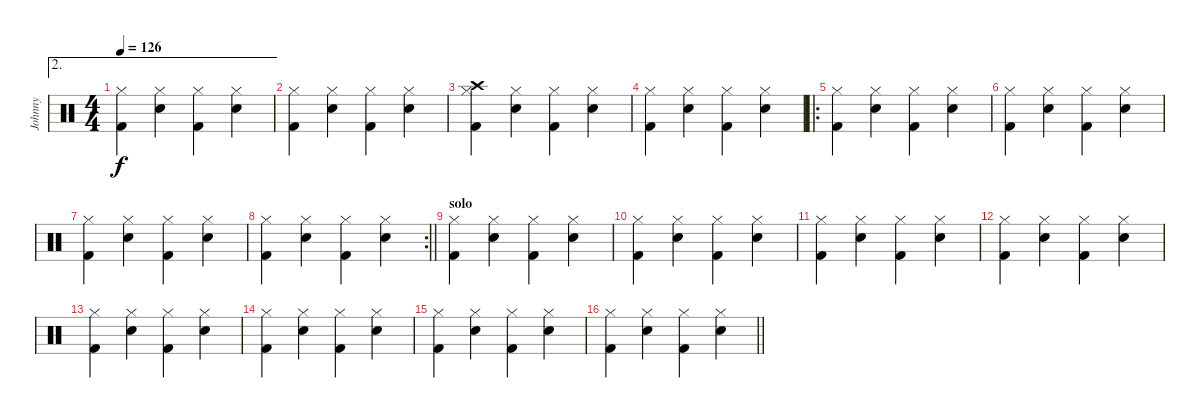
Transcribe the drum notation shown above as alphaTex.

\track ("Johnny" "Johnny") {instrument percussion}
\staff {score}
\articulation defaults
\ae 2
\ts (4 4)
\tempo 126
\clef neutral
\ks c
("Kick (hit) 2" "Hi-Hat (closed)").4{dy f} ("Electric Snare (hit)" "Hi-Hat (closed)").4 ("Kick (hit) 2" "Hi-Hat (closed)").4 ("Electric Snare (hit)" "Hi-Hat (closed)").4 |
("Kick (hit) 2" "Hi-Hat (closed)").4 ("Electric Snare (hit)" "Hi-Hat (closed)").4 ("Kick (hit) 2" "Hi-Hat (closed)").4 ("Electric Snare (hit)" "Hi-Hat (closed)").4 |
("Kick (hit) 2" "Hi-Hat (closed)" "Crash high (hit)").4 ("Electric Snare (hit)" "Hi-Hat (closed)").4 ("Kick (hit) 2" "Hi-Hat (closed)").4 ("Electric Snare (hit)" "Hi-Hat (closed)").4 |
("Kick (hit) 2" "Hi-Hat (closed)").4 ("Electric Snare (hit)" "Hi-Hat (closed)").4 ("Kick (hit) 2" "Hi-Hat (closed)").4 ("Electric Snare (hit)" "Hi-Hat (closed)").4 |
\ro
("Kick (hit) 2" "Hi-Hat (closed)").4 ("Electric Snare (hit)" "Hi-Hat (closed)").4 ("Kick (hit) 2" "Hi-Hat (closed)").4 ("Electric Snare (hit)" "Hi-Hat (closed)").4 |
("Kick (hit) 2" "Hi-Hat (closed)").4 ("Electric Snare (hit)" "Hi-Hat (closed)").4 ("Kick (hit) 2" "Hi-Hat (closed)").4 ("Electric Snare (hit)" "Hi-Hat (closed)").4 |
("Kick (hit) 2" "Hi-Hat (closed)").4 ("Electric Snare (hit)" "Hi-Hat (closed)").4 ("Kick (hit) 2" "Hi-Hat (closed)").4 ("Electric Snare (hit)" "Hi-Hat (closed)").4 |
\rc 2
\barLineRight lightlight
("Kick (hit) 2" "Hi-Hat (closed)").4 ("Electric Snare (hit)" "Hi-Hat (closed)").4 ("Kick (hit) 2" "Hi-Hat (closed)").4 ("Electric Snare (hit)" "Hi-Hat (closed)").4 |
\section ("" "solo")
("Kick (hit) 2" "Hi-Hat (closed)").4 ("Electric Snare (hit)" "Hi-Hat (closed)").4 ("Kick (hit) 2" "Hi-Hat (closed)").4 ("Electric Snare (hit)" "Hi-Hat (closed)").4 |
("Kick (hit) 2" "Hi-Hat (closed)").4 ("Electric Snare (hit)" "Hi-Hat (closed)").4 ("Kick (hit) 2" "Hi-Hat (closed)").4 ("Electric Snare (hit)" "Hi-Hat (closed)").4 |
("Kick (hit) 2" "Hi-Hat (closed)").4 ("Electric Snare (hit)" "Hi-Hat (closed)").4 ("Kick (hit) 2" "Hi-Hat (closed)").4 ("Electric Snare (hit)" "Hi-Hat (closed)").4 |
("Kick (hit) 2" "Hi-Hat (closed)").4 ("Electric Snare (hit)" "Hi-Hat (closed)").4 ("Kick (hit) 2" "Hi-Hat (closed)").4 ("Electric Snare (hit)" "Hi-Hat (closed)").4 |
("Kick (hit) 2" "Hi-Hat (closed)").4 ("Electric Snare (hit)" "Hi-Hat (closed)").4 ("Kick (hit) 2" "Hi-Hat (closed)").4 ("Electric Snare (hit)" "Hi-Hat (closed)").4 |
("Kick (hit) 2" "Hi-Hat (closed)").4 ("Electric Snare (hit)" "Hi-Hat (closed)").4 ("Kick (hit) 2" "Hi-Hat (closed)").4 ("Electric Snare (hit)" "Hi-Hat (closed)").4 |
("Kick (hit) 2" "Hi-Hat (closed)").4 ("Electric Snare (hit)" "Hi-Hat (closed)").4 ("Kick (hit) 2" "Hi-Hat (closed)").4 ("Electric Snare (hit)" "Hi-Hat (closed)").4 |
\barLineRight lightlight
("Kick (hit) 2" "Hi-Hat (closed)").4 ("Electric Snare (hit)" "Hi-Hat (closed)").4 ("Kick (hit) 2" "Hi-Hat (closed)").4 ("Electric Snare (hit)" "Hi-Hat (closed)").4
